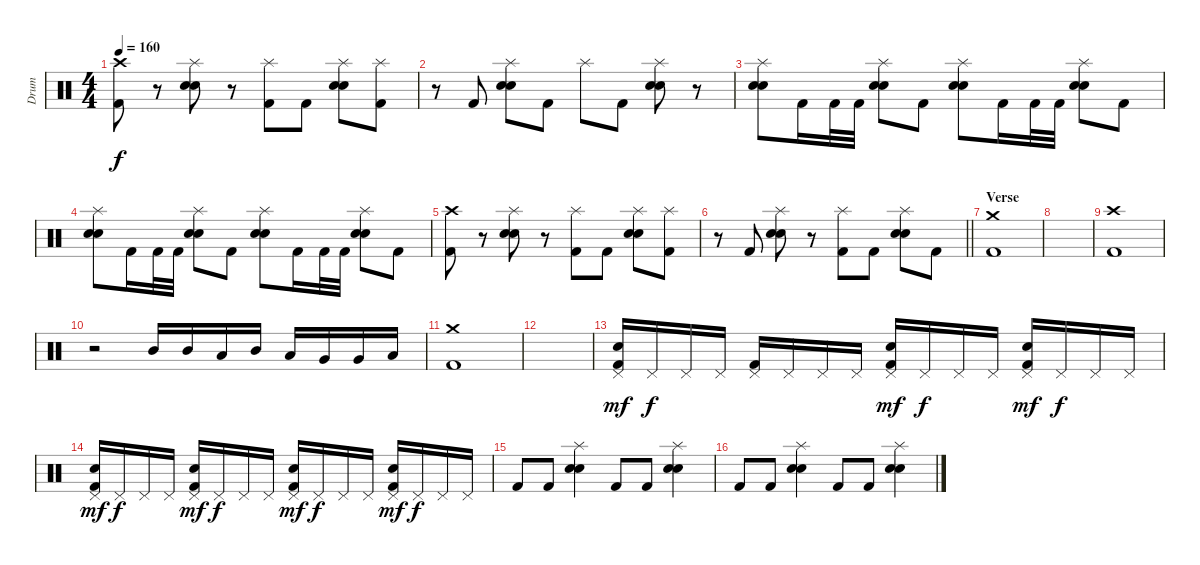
\track ("Drum" "Drum") {instrument percussion}
\staff {score}
\articulation defaults
\ts (4 4)
\tempo 160
\clef neutral
\ks c
("Crash high (hit)" "Kick (hit) 2").8{dy f} r.8 ("Splash (hit)" "Electric Snare (hit)" "Snare (hit) 2").8 r.8 ("Splash (hit)" "Kick (hit) 2").8 "Kick (hit) 2".8 ("Splash (hit)" "Electric Snare (hit)" "Snare (hit) 2").8 ("Splash (hit)" "Kick (hit) 2").8 |
r.8 "Kick (hit) 2".8 ("Splash (hit)" "Electric Snare (hit)" "Snare (hit) 2").8 "Kick (hit) 2".8 "Splash (hit)".8 "Kick (hit) 2".8 ("Splash (hit)" "Electric Snare (hit)" "Snare (hit) 2").8 r.8 |
("Splash (hit)" "Electric Snare (hit)" "Snare (hit) 2").8 "Kick (hit) 2".16 "Kick (hit) 2".32 "Kick (hit) 2".32 ("Splash (hit)" "Electric Snare (hit)" "Snare (hit) 2").8 "Kick (hit) 2".8 ("Splash (hit)" "Electric Snare (hit)" "Snare (hit) 2").8 "Kick (hit) 2".16 "Kick (hit) 2".32 "Kick (hit) 2".32 ("Splash (hit)" "Electric Snare (hit)" "Snare (hit) 2").8 "Kick (hit) 2".8 |
("Splash (hit)" "Electric Snare (hit)" "Snare (hit) 2").8 "Kick (hit) 2".16 "Kick (hit) 2".32 "Kick (hit) 2".32 ("Splash (hit)" "Electric Snare (hit)" "Snare (hit) 2").8 "Kick (hit) 2".8 ("Splash (hit)" "Electric Snare (hit)" "Snare (hit) 2").8 "Kick (hit) 2".16 "Kick (hit) 2".32 "Kick (hit) 2".32 ("Splash (hit)" "Electric Snare (hit)" "Snare (hit) 2").8 "Kick (hit) 2".8 |
("Crash high (hit)" "Kick (hit) 2").8 r.8 ("Splash (hit)" "Electric Snare (hit)" "Snare (hit) 2").8 r.8 ("Splash (hit)" "Kick (hit) 2").8 "Kick (hit) 2".8 ("Splash (hit)" "Electric Snare (hit)" "Snare (hit) 2").8 ("Splash (hit)" "Kick (hit) 2").8 |
\barLineRight lightlight
r.8 "Kick (hit) 2".8 ("Splash (hit)" "Electric Snare (hit)" "Snare (hit) 2").8 r.8 ("Splash (hit)" "Kick (hit) 2").8 "Kick (hit) 2".8 ("Splash (hit)" "Electric Snare (hit)" "Snare (hit) 2").8 "Kick (hit) 2".8 |
\section ("" "Verse")
("Crash medium (hit)" "Kick (hit) 2").1 |
|
("Crash high (hit)" "Kick (hit) 2").1 |
r.2 "Mid Tom (hit)".16 "Mid Tom (hit)".16 "Low Tom (hit)".16 "Mid Tom (hit)".16 "Low Tom (hit)".16 "Very Low Tom (hit)".16 "Very Low Tom (hit)".16 "Low Floor Tom (hit)".16 |
("Crash medium (hit)" "Kick (hit) 2").1 |
|
("Pedal Hi-Hat (hit)" "Electric Snare (hit)" "Kick (hit) 2").16{dy mf} "Pedal Hi-Hat (hit)".16{dy f} "Pedal Hi-Hat (hit)".16 "Pedal Hi-Hat (hit)".16 ("Pedal Hi-Hat (hit)" "Kick (hit) 2").16 "Pedal Hi-Hat (hit)".16 "Pedal Hi-Hat (hit)".16 "Pedal Hi-Hat (hit)".16 ("Pedal Hi-Hat (hit)" "Electric Snare (hit)" "Kick (hit) 2").16{dy mf} "Pedal Hi-Hat (hit)".16{dy f} "Pedal Hi-Hat (hit)".16 "Pedal Hi-Hat (hit)".16 ("Pedal Hi-Hat (hit)" "Electric Snare (hit)" "Kick (hit) 2").16{dy mf} "Pedal Hi-Hat (hit)".16{dy f} "Pedal Hi-Hat (hit)".16 "Pedal Hi-Hat (hit)".16 |
("Pedal Hi-Hat (hit)" "Electric Snare (hit)" "Kick (hit) 2").16{dy mf} "Pedal Hi-Hat (hit)".16{dy f} "Pedal Hi-Hat (hit)".16 "Pedal Hi-Hat (hit)".16 ("Pedal Hi-Hat (hit)" "Electric Snare (hit)" "Kick (hit) 2").16{dy mf} "Pedal Hi-Hat (hit)".16{dy f} "Pedal Hi-Hat (hit)".16 "Pedal Hi-Hat (hit)".16 ("Pedal Hi-Hat (hit)" "Electric Snare (hit)" "Kick (hit) 2").16{dy mf} "Pedal Hi-Hat (hit)".16{dy f} "Pedal Hi-Hat (hit)".16 "Pedal Hi-Hat (hit)".16 ("Pedal Hi-Hat (hit)" "Electric Snare (hit)" "Kick (hit) 2").16{dy mf} "Pedal Hi-Hat (hit)".16{dy f} "Pedal Hi-Hat (hit)".16 "Pedal Hi-Hat (hit)".16 |
"Kick (hit) 2".8 "Kick (hit) 2".8 ("Splash (hit)" "Electric Snare (hit)" "Snare (hit) 2").4 "Kick (hit) 2".8 "Kick (hit) 2".8 ("Splash (hit)" "Electric Snare (hit)" "Snare (hit) 2").4 |
"Kick (hit) 2".8 "Kick (hit) 2".8 ("Splash (hit)" "Electric Snare (hit)" "Snare (hit) 2").4 "Kick (hit) 2".8 "Kick (hit) 2".8 ("Splash (hit)" "Electric Snare (hit)" "Snare (hit) 2").4
